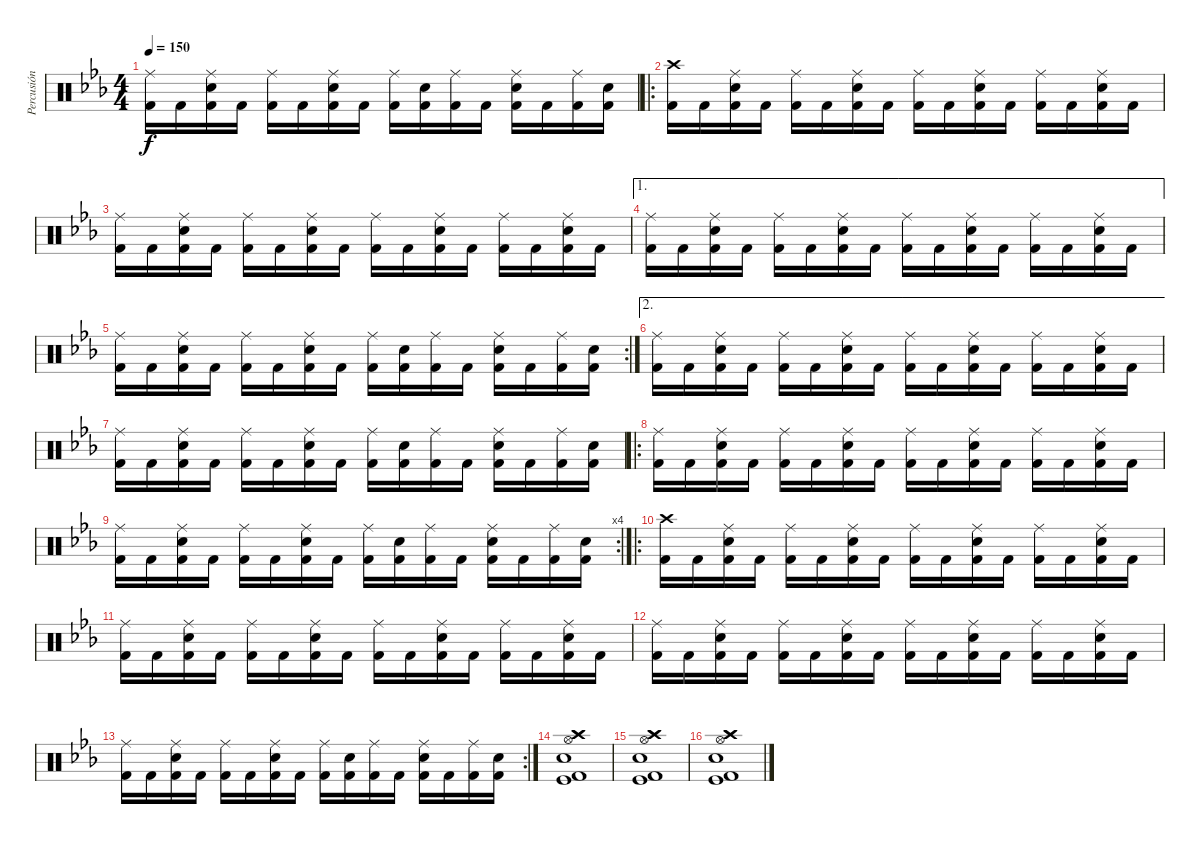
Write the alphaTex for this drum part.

\track ("Percusión" "Percusión") {instrument percussion}
\staff {score}
\articulation defaults
\ts (4 4)
\tempo 150
\clef neutral
\ks cminor
("Ride (middle)" "Kick (hit) 2").16{dy f} "Kick (hit) 2".16 ("Ride (middle)" "Electric Snare (hit)" "Kick (hit) 2").16 "Kick (hit) 2".16 ("Ride (middle)" "Kick (hit) 2").16 "Kick (hit) 2".16 ("Ride (middle)" "Electric Snare (hit)" "Kick (hit) 2").16 "Kick (hit) 2".16 ("Ride (middle)" "Kick (hit) 2").16 ("Electric Snare (hit)" "Kick (hit) 2").16 ("Ride (middle)" "Kick (hit) 2").16 "Kick (hit) 2".16 ("Ride (middle)" "Electric Snare (hit)" "Kick (hit) 2").16 "Kick (hit) 2".16 ("Ride (middle)" "Kick (hit) 2").16 ("Electric Snare (hit)" "Kick (hit) 2").16 |
\ro
("Crash high (hit)" "Kick (hit) 2").16 "Kick (hit) 2".16 ("Ride (middle)" "Electric Snare (hit)" "Kick (hit) 2").16 "Kick (hit) 2".16 ("Ride (middle)" "Kick (hit) 2").16 "Kick (hit) 2".16 ("Ride (middle)" "Electric Snare (hit)" "Kick (hit) 2").16 "Kick (hit) 2".16 ("Ride (middle)" "Kick (hit) 2").16 "Kick (hit) 2".16 ("Ride (middle)" "Electric Snare (hit)" "Kick (hit) 2").16 "Kick (hit) 2".16 ("Ride (middle)" "Kick (hit) 2").16 "Kick (hit) 2".16 ("Ride (middle)" "Electric Snare (hit)" "Kick (hit) 2").16 "Kick (hit) 2".16 |
("Ride (middle)" "Kick (hit) 2").16 "Kick (hit) 2".16 ("Ride (middle)" "Electric Snare (hit)" "Kick (hit) 2").16 "Kick (hit) 2".16 ("Ride (middle)" "Kick (hit) 2").16 "Kick (hit) 2".16 ("Ride (middle)" "Electric Snare (hit)" "Kick (hit) 2").16 "Kick (hit) 2".16 ("Ride (middle)" "Kick (hit) 2").16 "Kick (hit) 2".16 ("Ride (middle)" "Electric Snare (hit)" "Kick (hit) 2").16 "Kick (hit) 2".16 ("Ride (middle)" "Kick (hit) 2").16 "Kick (hit) 2".16 ("Ride (middle)" "Electric Snare (hit)" "Kick (hit) 2").16 "Kick (hit) 2".16 |
\ae 1
("Ride (middle)" "Kick (hit) 2").16 "Kick (hit) 2".16 ("Ride (middle)" "Electric Snare (hit)" "Kick (hit) 2").16 "Kick (hit) 2".16 ("Ride (middle)" "Kick (hit) 2").16 "Kick (hit) 2".16 ("Ride (middle)" "Electric Snare (hit)" "Kick (hit) 2").16 "Kick (hit) 2".16 ("Ride (middle)" "Kick (hit) 2").16 "Kick (hit) 2".16 ("Ride (middle)" "Electric Snare (hit)" "Kick (hit) 2").16 "Kick (hit) 2".16 ("Ride (middle)" "Kick (hit) 2").16 "Kick (hit) 2".16 ("Ride (middle)" "Electric Snare (hit)" "Kick (hit) 2").16 "Kick (hit) 2".16 |
\rc 2
("Ride (middle)" "Kick (hit) 2").16 "Kick (hit) 2".16 ("Ride (middle)" "Electric Snare (hit)" "Kick (hit) 2").16 "Kick (hit) 2".16 ("Ride (middle)" "Kick (hit) 2").16 "Kick (hit) 2".16 ("Ride (middle)" "Electric Snare (hit)" "Kick (hit) 2").16 "Kick (hit) 2".16 ("Ride (middle)" "Kick (hit) 2").16 ("Electric Snare (hit)" "Kick (hit) 2").16 ("Ride (middle)" "Kick (hit) 2").16 "Kick (hit) 2".16 ("Ride (middle)" "Electric Snare (hit)" "Kick (hit) 2").16 "Kick (hit) 2".16 ("Ride (middle)" "Kick (hit) 2").16 ("Electric Snare (hit)" "Kick (hit) 2").16 |
\ae 2
("Ride (middle)" "Kick (hit) 2").16 "Kick (hit) 2".16 ("Ride (middle)" "Electric Snare (hit)" "Kick (hit) 2").16 "Kick (hit) 2".16 ("Ride (middle)" "Kick (hit) 2").16 "Kick (hit) 2".16 ("Ride (middle)" "Electric Snare (hit)" "Kick (hit) 2").16 "Kick (hit) 2".16 ("Ride (middle)" "Kick (hit) 2").16 "Kick (hit) 2".16 ("Ride (middle)" "Electric Snare (hit)" "Kick (hit) 2").16 "Kick (hit) 2".16 ("Ride (middle)" "Kick (hit) 2").16 "Kick (hit) 2".16 ("Ride (middle)" "Electric Snare (hit)" "Kick (hit) 2").16 "Kick (hit) 2".16 |
("Ride (middle)" "Kick (hit) 2").16 "Kick (hit) 2".16 ("Ride (middle)" "Electric Snare (hit)" "Kick (hit) 2").16 "Kick (hit) 2".16 ("Ride (middle)" "Kick (hit) 2").16 "Kick (hit) 2".16 ("Ride (middle)" "Electric Snare (hit)" "Kick (hit) 2").16 "Kick (hit) 2".16 ("Ride (middle)" "Kick (hit) 2").16 ("Electric Snare (hit)" "Kick (hit) 2").16 ("Ride (middle)" "Kick (hit) 2").16 "Kick (hit) 2".16 ("Ride (middle)" "Electric Snare (hit)" "Kick (hit) 2").16 "Kick (hit) 2".16 ("Ride (middle)" "Kick (hit) 2").16 ("Electric Snare (hit)" "Kick (hit) 2").16 |
\ro
("Ride (middle)" "Kick (hit) 2").16 "Kick (hit) 2".16 ("Ride (middle)" "Electric Snare (hit)" "Kick (hit) 2").16 "Kick (hit) 2".16 ("Ride (middle)" "Kick (hit) 2").16 "Kick (hit) 2".16 ("Ride (middle)" "Electric Snare (hit)" "Kick (hit) 2").16 "Kick (hit) 2".16 ("Ride (middle)" "Kick (hit) 2").16 "Kick (hit) 2".16 ("Ride (middle)" "Electric Snare (hit)" "Kick (hit) 2").16 "Kick (hit) 2".16 ("Ride (middle)" "Kick (hit) 2").16 "Kick (hit) 2".16 ("Ride (middle)" "Electric Snare (hit)" "Kick (hit) 2").16 "Kick (hit) 2".16 |
\rc 4
("Ride (middle)" "Kick (hit) 2").16 "Kick (hit) 2".16 ("Ride (middle)" "Electric Snare (hit)" "Kick (hit) 2").16 "Kick (hit) 2".16 ("Ride (middle)" "Kick (hit) 2").16 "Kick (hit) 2".16 ("Ride (middle)" "Electric Snare (hit)" "Kick (hit) 2").16 "Kick (hit) 2".16 ("Ride (middle)" "Kick (hit) 2").16 ("Electric Snare (hit)" "Kick (hit) 2").16 ("Ride (middle)" "Kick (hit) 2").16 "Kick (hit) 2".16 ("Ride (middle)" "Electric Snare (hit)" "Kick (hit) 2").16 "Kick (hit) 2".16 ("Ride (middle)" "Kick (hit) 2").16 ("Electric Snare (hit)" "Kick (hit) 2").16 |
\ro
("Crash high (hit)" "Kick (hit) 2").16 "Kick (hit) 2".16 ("Ride (middle)" "Electric Snare (hit)" "Kick (hit) 2").16 "Kick (hit) 2".16 ("Ride (middle)" "Kick (hit) 2").16 "Kick (hit) 2".16 ("Ride (middle)" "Electric Snare (hit)" "Kick (hit) 2").16 "Kick (hit) 2".16 ("Ride (middle)" "Kick (hit) 2").16 "Kick (hit) 2".16 ("Ride (middle)" "Electric Snare (hit)" "Kick (hit) 2").16 "Kick (hit) 2".16 ("Ride (middle)" "Kick (hit) 2").16 "Kick (hit) 2".16 ("Ride (middle)" "Electric Snare (hit)" "Kick (hit) 2").16 "Kick (hit) 2".16 |
("Ride (middle)" "Kick (hit) 2").16 "Kick (hit) 2".16 ("Ride (middle)" "Electric Snare (hit)" "Kick (hit) 2").16 "Kick (hit) 2".16 ("Ride (middle)" "Kick (hit) 2").16 "Kick (hit) 2".16 ("Ride (middle)" "Electric Snare (hit)" "Kick (hit) 2").16 "Kick (hit) 2".16 ("Ride (middle)" "Kick (hit) 2").16 "Kick (hit) 2".16 ("Ride (middle)" "Electric Snare (hit)" "Kick (hit) 2").16 "Kick (hit) 2".16 ("Ride (middle)" "Kick (hit) 2").16 "Kick (hit) 2".16 ("Ride (middle)" "Electric Snare (hit)" "Kick (hit) 2").16 "Kick (hit) 2".16 |
("Ride (middle)" "Kick (hit) 2").16 "Kick (hit) 2".16 ("Ride (middle)" "Electric Snare (hit)" "Kick (hit) 2").16 "Kick (hit) 2".16 ("Ride (middle)" "Kick (hit) 2").16 "Kick (hit) 2".16 ("Ride (middle)" "Electric Snare (hit)" "Kick (hit) 2").16 "Kick (hit) 2".16 ("Ride (middle)" "Kick (hit) 2").16 "Kick (hit) 2".16 ("Ride (middle)" "Electric Snare (hit)" "Kick (hit) 2").16 "Kick (hit) 2".16 ("Ride (middle)" "Kick (hit) 2").16 "Kick (hit) 2".16 ("Ride (middle)" "Electric Snare (hit)" "Kick (hit) 2").16 "Kick (hit) 2".16 |
\rc 2
("Ride (middle)" "Kick (hit) 2").16 "Kick (hit) 2".16 ("Ride (middle)" "Electric Snare (hit)" "Kick (hit) 2").16 "Kick (hit) 2".16 ("Ride (middle)" "Kick (hit) 2").16 "Kick (hit) 2".16 ("Ride (middle)" "Electric Snare (hit)" "Kick (hit) 2").16 "Kick (hit) 2".16 ("Ride (middle)" "Kick (hit) 2").16 ("Electric Snare (hit)" "Kick (hit) 2").16 ("Ride (middle)" "Kick (hit) 2").16 "Kick (hit) 2".16 ("Ride (middle)" "Electric Snare (hit)" "Kick (hit) 2").16 "Kick (hit) 2".16 ("Ride (middle)" "Kick (hit) 2").16 ("Electric Snare (hit)" "Kick (hit) 2").16 |
("Crash high (hit)" "Crash high (hit)" "Hi-Hat (open)" "Electric Snare (hit)" "Kick (hit)" "Kick (hit) 2").1 |
("Crash high (hit)" "Crash high (hit)" "Hi-Hat (open)" "Electric Snare (hit)" "Kick (hit)" "Kick (hit) 2").1 |
("Crash high (hit)" "Crash high (hit)" "Hi-Hat (open)" "Electric Snare (hit)" "Kick (hit)" "Kick (hit) 2").1
